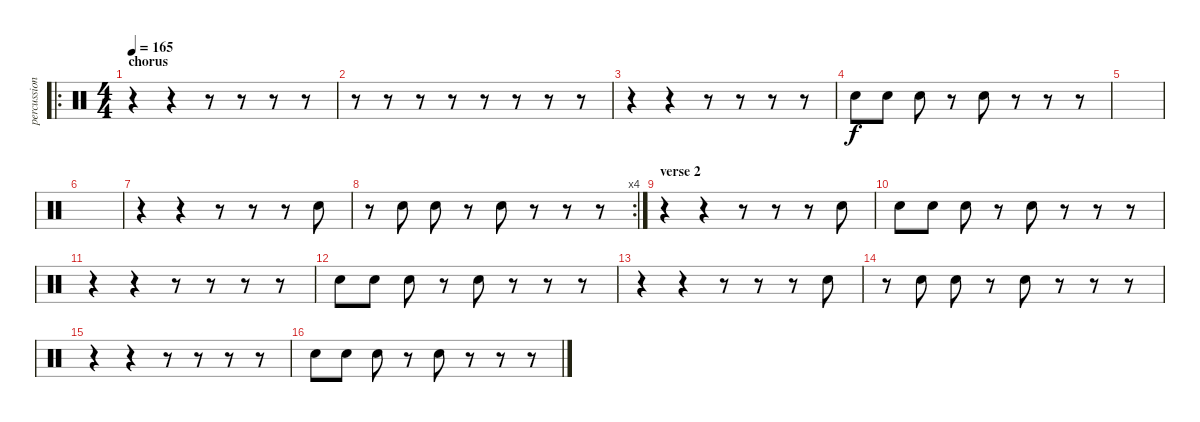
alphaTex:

\track ("percussion" "percussion") {instrument percussion}
\staff {score}
\articulation defaults
\ro
\ts (4 4)
\section ("" "chorus")
\tempo 165
\clef neutral
\ks c
r.4{dy f} r.4 r.8 r.8 r.8 r.8 |
r.8 r.8 r.8 r.8 r.8 r.8 r.8 r.8 |
r.4 r.4 r.8 r.8 r.8 r.8 |
"Hand Clap (hit)".8 "Hand Clap (hit)".8 "Hand Clap (hit)".8 r.8 "Hand Clap (hit)".8 r.8 r.8 r.8 |
|
|
r.4 r.4 r.8 r.8 r.8 "Hand Clap (hit)".8 |
\rc 4
r.8 "Hand Clap (hit)".8 "Hand Clap (hit)".8 r.8 "Hand Clap (hit)".8 r.8 r.8 r.8 |
\section ("" "verse 2")
r.4 r.4 r.8 r.8 r.8 "Hand Clap (hit)".8 |
"Hand Clap (hit)".8 "Hand Clap (hit)".8 "Hand Clap (hit)".8 r.8 "Hand Clap (hit)".8 r.8 r.8 r.8 |
r.4 r.4 r.8 r.8 r.8 r.8 |
"Hand Clap (hit)".8 "Hand Clap (hit)".8 "Hand Clap (hit)".8 r.8 "Hand Clap (hit)".8 r.8 r.8 r.8 |
r.4 r.4 r.8 r.8 r.8 "Hand Clap (hit)".8 |
r.8 "Hand Clap (hit)".8 "Hand Clap (hit)".8 r.8 "Hand Clap (hit)".8 r.8 r.8 r.8 |
r.4 r.4 r.8 r.8 r.8 r.8 |
"Hand Clap (hit)".8 "Hand Clap (hit)".8 "Hand Clap (hit)".8 r.8 "Hand Clap (hit)".8 r.8 r.8 r.8
